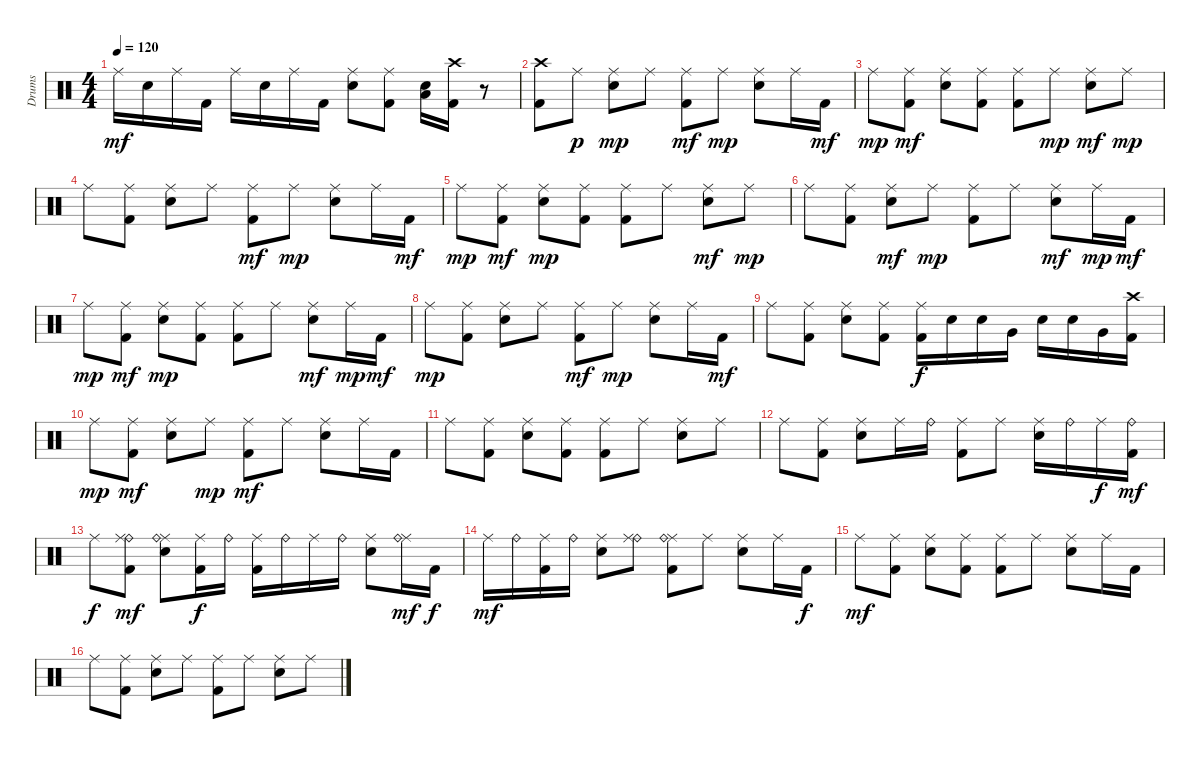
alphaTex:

\track ("Drums" "Drums") {instrument percussion}
\staff {score}
\articulation defaults
\ts (4 4)
\tempo 120
\clef neutral
\ks c "Ride (middle)".16{dy mf} "Snare (hit) 2".16 "Ride (middle)".16 "Kick (hit) 2".16 "Ride (middle)".16 "Snare (hit) 2".16 "Ride (middle)".16 "Kick (hit) 2".16
("Snare (hit) 2" "Ride (middle)").8 ("Kick (hit) 2" "Ride (middle)").8 ("Low Floor Tom (hit)" "Snare (hit) 2").16 ("Crash high (hit)" "Kick (hit) 2").16 r.8 |
("Crash high (hit)" "Kick (hit) 2").8 "Ride (middle)".8{dy p} ("Snare (hit) 2" "Ride (middle)").8{dy mp} "Ride (middle)".8 ("Ride (middle)" "Kick (hit) 2").8{dy mf} "Ride (middle)".8{dy mp} ("Snare (hit) 2" "Ride (middle)").8 "Ride (middle)".16 "Kick (hit) 2".16{dy mf} |
"Ride (middle)".8{dy mp} ("Ride (middle)" "Kick (hit) 2").8{dy mf} ("Ride (middle)" "Snare (hit) 2").8 ("Ride (middle)" "Kick (hit) 2").8 ("Ride (middle)" "Kick (hit) 2").8 "Ride (middle)".8{dy mp} ("Ride (middle)" "Snare (hit) 2").8{dy mf} "Ride (middle)".8{dy mp} |
"Ride (middle)".8 ("Kick (hit) 2" "Ride (middle)").8 ("Snare (hit) 2" "Ride (middle)").8 "Ride (middle)".8 ("Ride (middle)" "Kick (hit) 2").8{dy mf} "Ride (middle)".8{dy mp} ("Snare (hit) 2" "Ride (middle)").8 "Ride (middle)".16 "Kick (hit) 2".16{dy mf} |
"Ride (middle)".8{dy mp} ("Ride (middle)" "Kick (hit) 2").8{dy mf} ("Snare (hit) 2" "Ride (middle)").8{dy mp} ("Kick (hit) 2" "Ride (middle)").8 ("Kick (hit) 2" "Ride (middle)").8 "Ride (middle)".8 ("Ride (middle)" "Snare (hit) 2").8{dy mf} "Ride (middle)".8{dy mp} |
"Ride (middle)".8 ("Kick (hit) 2" "Ride (middle)").8 ("Ride (middle)" "Snare (hit) 2").8{dy mf} "Ride (middle)".8{dy mp} ("Kick (hit) 2" "Ride (middle)").8 "Ride (middle)".8 ("Ride (middle)" "Snare (hit) 2").8{dy mf} "Ride (middle)".16{dy mp} "Kick (hit) 2".16{dy mf} |
"Ride (middle)".8{dy mp} ("Ride (middle)" "Kick (hit) 2").8{dy mf} ("Snare (hit) 2" "Ride (middle)").8{dy mp} ("Kick (hit) 2" "Ride (middle)").8 ("Kick (hit) 2" "Ride (middle)").8 "Ride (middle)".8 ("Ride (middle)" "Snare (hit) 2").8{dy mf} "Ride (middle)".16{dy mp} "Kick (hit) 2".16{dy mf} |
"Ride (middle)".8{dy mp} ("Kick (hit) 2" "Ride (middle)").8 ("Snare (hit) 2" "Ride (middle)").8 "Ride (middle)".8 ("Ride (middle)" "Kick (hit) 2").8{dy mf} "Ride (middle)".8{dy mp} ("Snare (hit) 2" "Ride (middle)").8 "Ride (middle)".16 "Kick (hit) 2".16{dy mf} |
"Ride (middle)".8 ("Ride (middle)" "Kick (hit) 2").8 ("Snare (hit) 2" "Ride (middle)").8 ("Kick (hit) 2" "Ride (middle)").8 ("Kick (hit) 2" "Ride (middle)").16{dy f} "Snare (hit) 2".16 "Snare (hit) 2".16 "Very Low Tom (hit)".16 "Snare (hit) 2".16 "Snare (hit) 2".16 "Very Low Tom (hit)".16 ("Kick (hit) 2" "Crash high (hit)").16 |
"Ride (middle)".8{dy mp} ("Ride (middle)" "Kick (hit) 2").8{dy mf} ("Ride (middle)" "Snare (hit) 2").8 "Ride (middle)".8{dy mp} ("Ride (middle)" "Kick (hit) 2").8{dy mf} "Ride (middle)".8 ("Ride (middle)" "Snare (hit) 2").8 "Ride (middle)".16 "Kick (hit) 2".16 |
"Ride (middle)".8 ("Ride (middle)" "Kick (hit) 2").8 ("Snare (hit) 2" "Ride (middle)").8 ("Kick (hit) 2" "Ride (middle)").8 ("Kick (hit) 2" "Ride (middle)").8 "Ride (middle)".8 ("Snare (hit) 2" "Ride (middle)").8 "Ride (middle)".8 |
"Ride (middle)".8 ("Kick (hit) 2" "Ride (middle)").8 ("Snare (hit) 2" "Ride (middle)").8 "Ride (middle)".16 "Ride (bell)".16 ("Ride (middle)" "Kick (hit) 2").8 "Ride (middle)".8 ("Snare (hit) 2" "Ride (middle)").16 "Ride (bell)".16 "Ride (middle)".16{dy f} ("Kick (hit) 2" "Ride (bell)").16{dy mf} |
"Ride (middle)".8{dy f} ("Kick (hit) 2" "Ride (bell)" "Ride (middle)").8{dy mf} ("Ride (middle)" "Ride (bell)" "Snare (hit) 2").8 ("Kick (hit) 2" "Ride (middle)").16{dy f} "Ride (bell)".16 ("Kick (hit) 2" "Ride (middle)").16 "Ride (bell)".16 "Ride (middle)".16 "Ride (bell)".16 ("Ride (middle)" "Snare (hit) 2").8 ("Ride (middle)" "Ride (bell)").16{dy mf} "Kick (hit) 2".16{dy f} |
"Ride (middle)".16{dy mf} "Ride (bell)".16 ("Kick (hit) 2" "Ride (middle)").16 "Ride (bell)".16 ("Snare (hit) 2" "Ride (middle)").8 ("Ride (bell)" "Ride (middle)").8 ("Ride (middle)" "Kick (hit) 2" "Ride (bell)").8 "Ride (middle)".8 ("Ride (middle)" "Snare (hit) 2").8 "Ride (middle)".16 "Kick (hit) 2".16{dy f} |
"Ride (middle)".8{dy mf} ("Kick (hit) 2" "Ride (middle)").8 ("Snare (hit) 2" "Ride (middle)").8 ("Ride (middle)" "Kick (hit) 2").8 ("Kick (hit) 2" "Ride (middle)").8 "Ride (middle)".8 ("Snare (hit) 2" "Ride (middle)").8 "Ride (middle)".16 "Kick (hit) 2".16 |
"Ride (middle)".8 ("Ride (middle)" "Kick (hit) 2").8 ("Ride (middle)" "Snare (hit) 2").8 "Ride (middle)".8 ("Kick (hit) 2" "Ride (middle)").8 "Ride (middle)".8 ("Snare (hit) 2" "Ride (middle)").8 "Ride (middle)".8
